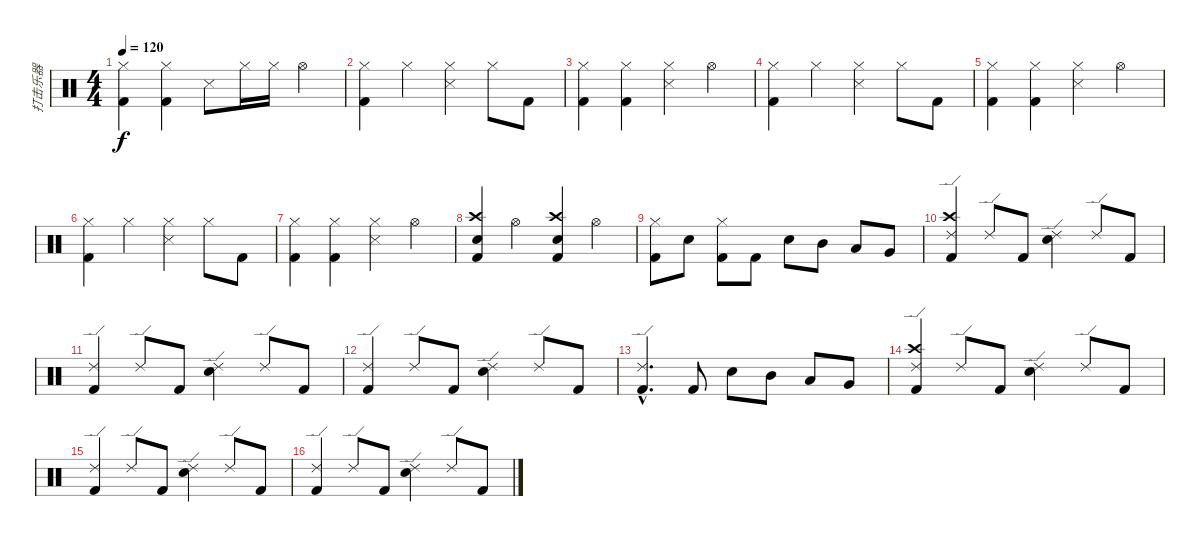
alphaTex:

\track ("打击乐器" "打击乐器") {instrument percussion}
\staff {score}
\articulation defaults
\ts (4 4)
\tempo 120
\clef neutral
\ks c
("Hi-Hat (closed)" "Kick (hit) 2").4{dy f} ("Hi-Hat (closed)" "Kick (hit) 2").4 "Snare (side stick) 3".8 "Hi-Hat (closed)".16 "Hi-Hat (closed)".16 "Hi-Hat (open)".4 |
("Hi-Hat (closed)" "Kick (hit) 2").4 "Hi-Hat (closed)".4 ("Hi-Hat (closed)" "Snare (side stick) 3").4 "Hi-Hat (closed)".8 "Kick (hit) 2".8 |
("Hi-Hat (closed)" "Kick (hit) 2").4 ("Hi-Hat (closed)" "Kick (hit) 2").4 ("Hi-Hat (closed)" "Snare (side stick) 3").4 "Hi-Hat (open)".4 |
("Hi-Hat (closed)" "Kick (hit) 2").4 "Hi-Hat (closed)".4 ("Hi-Hat (closed)" "Snare (side stick) 3").4 "Hi-Hat (closed)".8 "Kick (hit) 2".8 |
("Hi-Hat (closed)" "Kick (hit) 2").4 ("Hi-Hat (closed)" "Kick (hit) 2").4 ("Hi-Hat (closed)" "Snare (side stick) 3").4 "Hi-Hat (open)".4 |
("Hi-Hat (closed)" "Kick (hit) 2").4 "Hi-Hat (closed)".4 ("Hi-Hat (closed)" "Snare (side stick) 3").4 "Hi-Hat (closed)".8 "Kick (hit) 2".8 |
("Hi-Hat (closed)" "Kick (hit) 2").4 ("Hi-Hat (closed)" "Kick (hit) 2").4 ("Hi-Hat (closed)" "Snare (side stick) 3").4 "Hi-Hat (open)".4 |
("Crash high (hit)" "Electric Snare (hit)" "Kick (hit) 2").4 "Hi-Hat (open)".4 ("Crash high (hit)" "Electric Snare (hit)" "Kick (hit) 2").4 "Hi-Hat (open)".4 |
("Hi-Hat (closed)" "Kick (hit) 2").8 "Electric Snare (hit)".8 ("Hi-Hat (closed)" "Kick (hit) 2").8 "Kick (hit) 2".8 "Electric Snare (hit)".8 "Mid Tom (hit)".8 "Low Tom (hit)".8 "Very Low Tom (hit)".8 |
("Ride (edge) 2" "Crash high (hit)" "Kick (hit) 2").4 "Ride (edge) 2".8 "Kick (hit) 2".8 ("Ride (edge) 2" "Electric Snare (hit)").4 "Ride (edge) 2".8 "Kick (hit) 2".8 |
("Ride (edge) 2" "Kick (hit) 2").4 "Ride (edge) 2".8 "Kick (hit) 2".8 ("Ride (edge) 2" "Electric Snare (hit)").4 "Ride (edge) 2".8 "Kick (hit) 2".8 |
("Ride (edge) 2" "Kick (hit) 2").4 "Ride (edge) 2".8 "Kick (hit) 2".8 ("Ride (edge) 2" "Electric Snare (hit)").4 "Ride (edge) 2".8 "Kick (hit) 2".8 |
("Ride (edge) 2"{hac} "Kick (hit) 2"{hac}).4{d} "Kick (hit) 2".8 "Electric Snare (hit)".8 "Mid Tom (hit)".8 "Low Tom (hit)".8 "Very Low Tom (hit)".8 |
("Ride (edge) 2" "Crash high (hit)" "Kick (hit) 2").4 "Ride (edge) 2".8 "Kick (hit) 2".8 ("Ride (edge) 2" "Electric Snare (hit)").4 "Ride (edge) 2".8 "Kick (hit) 2".8 |
("Ride (edge) 2" "Kick (hit) 2").4 "Ride (edge) 2".8 "Kick (hit) 2".8 ("Ride (edge) 2" "Electric Snare (hit)").4 "Ride (edge) 2".8 "Kick (hit) 2".8 |
("Ride (edge) 2" "Kick (hit) 2").4 "Ride (edge) 2".8 "Kick (hit) 2".8 ("Ride (edge) 2" "Electric Snare (hit)").4 "Ride (edge) 2".8 "Kick (hit) 2".8
